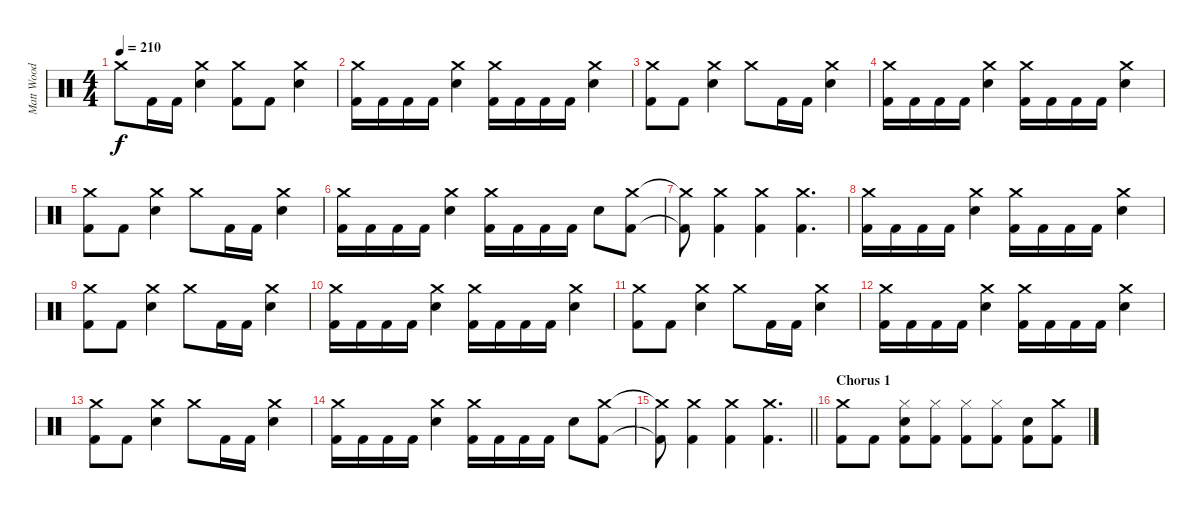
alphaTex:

\track ("Matt Wood" "Matt Wood") {instrument percussion}
\staff {score}
\articulation defaults
\ts (4 4)
\tempo 210
\clef neutral
\ks c "Crash medium (hit)".8{dy f} "Kick (hit) 2".16 "Kick (hit) 2".16
("Crash medium (hit)" "Snare (hit) 2").4 ("Crash medium (hit)" "Kick (hit) 2").8 "Kick (hit) 2".8 ("Crash medium (hit)" "Snare (hit) 2").4 |
("Crash medium (hit)" "Kick (hit) 2").16 "Kick (hit) 2".16 "Kick (hit) 2".16 "Kick (hit) 2".16 ("Crash medium (hit)" "Snare (hit) 2").4 ("Crash medium (hit)" "Kick (hit) 2").16 "Kick (hit) 2".16 "Kick (hit) 2".16 "Kick (hit) 2".16 ("Crash medium (hit)" "Snare (hit) 2").4 |
("Crash medium (hit)" "Kick (hit) 2").8 "Kick (hit) 2".8 ("Crash medium (hit)" "Snare (hit) 2").4 "Crash medium (hit)".8 "Kick (hit) 2".16 "Kick (hit) 2".16 ("Crash medium (hit)" "Snare (hit) 2").4 |
("Crash medium (hit)" "Kick (hit) 2").16 "Kick (hit) 2".16 "Kick (hit) 2".16 "Kick (hit) 2".16 ("Crash medium (hit)" "Snare (hit) 2").4 ("Crash medium (hit)" "Kick (hit) 2").16 "Kick (hit) 2".16 "Kick (hit) 2".16 "Kick (hit) 2".16 ("Crash medium (hit)" "Snare (hit) 2").4 |
("Crash medium (hit)" "Kick (hit) 2").8 "Kick (hit) 2".8 ("Crash medium (hit)" "Snare (hit) 2").4 "Crash medium (hit)".8 "Kick (hit) 2".16 "Kick (hit) 2".16 ("Crash medium (hit)" "Snare (hit) 2").4 |
("Crash medium (hit)" "Kick (hit) 2").16 "Kick (hit) 2".16 "Kick (hit) 2".16 "Kick (hit) 2".16 ("Crash medium (hit)" "Snare (hit) 2").4 ("Crash medium (hit)" "Kick (hit) 2").16 "Kick (hit) 2".16 "Kick (hit) 2".16 "Kick (hit) 2".16 "Snare (hit) 2".8 ("Crash medium (hit)" "Kick (hit) 2").8 |
("Crash medium (hit)"{t} "Kick (hit) 2"{t}).8 ("Crash medium (hit)" "Kick (hit) 2").4 ("Crash medium (hit)" "Kick (hit) 2").4 ("Crash medium (hit)" "Kick (hit) 2").4{d} |
("Crash medium (hit)" "Kick (hit) 2").16 "Kick (hit) 2".16 "Kick (hit) 2".16 "Kick (hit) 2".16 ("Crash medium (hit)" "Snare (hit) 2").4 ("Crash medium (hit)" "Kick (hit) 2").16 "Kick (hit) 2".16 "Kick (hit) 2".16 "Kick (hit) 2".16 ("Crash medium (hit)" "Snare (hit) 2").4 |
("Crash medium (hit)" "Kick (hit) 2").8 "Kick (hit) 2".8 ("Crash medium (hit)" "Snare (hit) 2").4 "Crash medium (hit)".8 "Kick (hit) 2".16 "Kick (hit) 2".16 ("Crash medium (hit)" "Snare (hit) 2").4 |
("Crash medium (hit)" "Kick (hit) 2").16 "Kick (hit) 2".16 "Kick (hit) 2".16 "Kick (hit) 2".16 ("Crash medium (hit)" "Snare (hit) 2").4 ("Crash medium (hit)" "Kick (hit) 2").16 "Kick (hit) 2".16 "Kick (hit) 2".16 "Kick (hit) 2".16 ("Crash medium (hit)" "Snare (hit) 2").4 |
("Crash medium (hit)" "Kick (hit) 2").8 "Kick (hit) 2".8 ("Crash medium (hit)" "Snare (hit) 2").4 "Crash medium (hit)".8 "Kick (hit) 2".16 "Kick (hit) 2".16 ("Crash medium (hit)" "Snare (hit) 2").4 |
("Crash medium (hit)" "Kick (hit) 2").16 "Kick (hit) 2".16 "Kick (hit) 2".16 "Kick (hit) 2".16 ("Crash medium (hit)" "Snare (hit) 2").4 ("Crash medium (hit)" "Kick (hit) 2").16 "Kick (hit) 2".16 "Kick (hit) 2".16 "Kick (hit) 2".16 ("Crash medium (hit)" "Snare (hit) 2").4 |
("Crash medium (hit)" "Kick (hit) 2").8 "Kick (hit) 2".8 ("Crash medium (hit)" "Snare (hit) 2").4 "Crash medium (hit)".8 "Kick (hit) 2".16 "Kick (hit) 2".16 ("Crash medium (hit)" "Snare (hit) 2").4 |
("Crash medium (hit)" "Kick (hit) 2").16 "Kick (hit) 2".16 "Kick (hit) 2".16 "Kick (hit) 2".16 ("Crash medium (hit)" "Snare (hit) 2").4 ("Crash medium (hit)" "Kick (hit) 2").16 "Kick (hit) 2".16 "Kick (hit) 2".16 "Kick (hit) 2".16 "Snare (hit) 2".8 ("Crash medium (hit)" "Kick (hit) 2").8 |
\barLineRight lightlight
("Crash medium (hit)"{t} "Kick (hit) 2"{t}).8 ("Crash medium (hit)" "Kick (hit) 2").4 ("Crash medium (hit)" "Kick (hit) 2").4 ("Crash medium (hit)" "Kick (hit) 2").4{d} |
\section ("" "Chorus 1")
("Crash medium (hit)" "Kick (hit) 2").8 "Kick (hit) 2".8 ("Hi-Hat (closed)" "Snare (hit) 2" "Kick (hit) 2").8 ("Hi-Hat (closed)" "Kick (hit) 2").8 ("Hi-Hat (closed)" "Kick (hit) 2").8 ("Hi-Hat (closed)" "Kick (hit) 2").8 ("Snare (hit) 2" "Kick (hit) 2").8 ("Crash medium (hit)" "Kick (hit) 2").8
